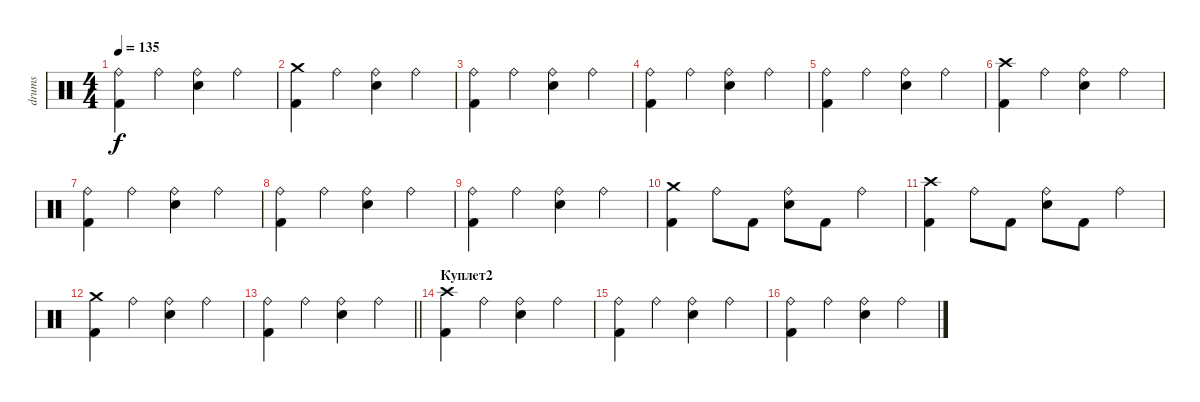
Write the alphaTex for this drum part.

\track ("drums" "drums") {instrument percussion}
\staff {score}
\articulation defaults
\ts (4 4)
\tempo 135
\clef neutral
\ks c
("Kick (hit) 2" "Ride (bell)").4{dy f} "Ride (bell)".4 ("Electric Snare (hit)" "Ride (bell)").4 "Ride (bell)".4 |
("Kick (hit) 2" "Crash medium (hit)").4 "Ride (bell)".4 ("Electric Snare (hit)" "Ride (bell)").4 "Ride (bell)".4 |
("Kick (hit) 2" "Ride (bell)").4 "Ride (bell)".4 ("Electric Snare (hit)" "Ride (bell)").4 "Ride (bell)".4 |
("Ride (bell)" "Kick (hit) 2").4 "Ride (bell)".4 ("Electric Snare (hit)" "Ride (bell)").4 "Ride (bell)".4 |
("Kick (hit) 2" "Ride (bell)").4 "Ride (bell)".4 ("Electric Snare (hit)" "Ride (bell)").4 "Ride (bell)".4 |
("Kick (hit) 2" "Crash high (hit)").4 "Ride (bell)".4 ("Electric Snare (hit)" "Ride (bell)").4 "Ride (bell)".4 |
("Kick (hit) 2" "Ride (bell)").4 "Ride (bell)".4 ("Electric Snare (hit)" "Ride (bell)").4 "Ride (bell)".4 |
("Ride (bell)" "Kick (hit) 2").4 "Ride (bell)".4 ("Electric Snare (hit)" "Ride (bell)").4 "Ride (bell)".4 |
("Kick (hit) 2" "Ride (bell)").4 "Ride (bell)".4 ("Electric Snare (hit)" "Ride (bell)").4 "Ride (bell)".4 |
("Kick (hit) 2" "Crash medium (hit)").4 "Ride (bell)".8 "Kick (hit) 2".8 ("Electric Snare (hit)" "Ride (bell)").8 "Kick (hit) 2".8 "Ride (bell)".4 |
("Kick (hit) 2" "Crash high (hit)").4 "Ride (bell)".8 "Kick (hit) 2".8 ("Electric Snare (hit)" "Ride (bell)").8 "Kick (hit) 2".8 "Ride (bell)".4 |
("Crash medium (hit)" "Kick (hit) 2").4 "Ride (bell)".4 ("Electric Snare (hit)" "Ride (bell)").4 "Ride (bell)".4 |
\barLineRight lightlight
("Kick (hit) 2" "Ride (bell)").4 "Ride (bell)".4 ("Electric Snare (hit)" "Ride (bell)").4 "Ride (bell)".4 |
\section ("" "Куплет2")
("Kick (hit) 2" "Crash high (hit)").4 "Ride (bell)".4 ("Electric Snare (hit)" "Ride (bell)").4 "Ride (bell)".4 |
("Kick (hit) 2" "Ride (bell)").4 "Ride (bell)".4 ("Electric Snare (hit)" "Ride (bell)").4 "Ride (bell)".4 |
("Ride (bell)" "Kick (hit) 2").4 "Ride (bell)".4 ("Electric Snare (hit)" "Ride (bell)").4 "Ride (bell)".4
